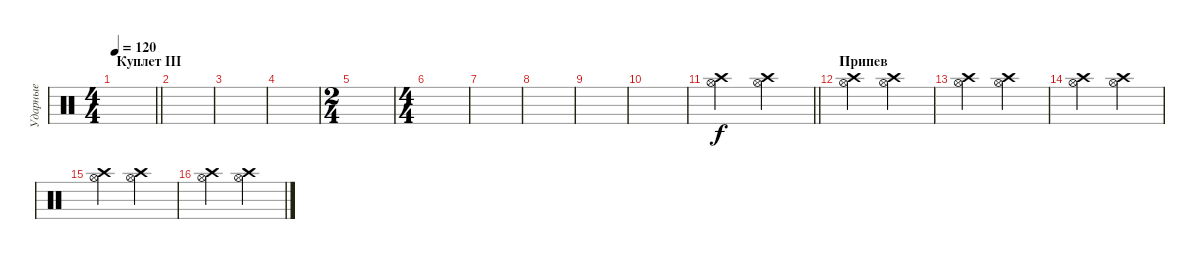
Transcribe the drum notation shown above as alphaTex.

\track ("Ударные" "Ударные") {instrument percussion}
\staff {score}
\articulation defaults
\ts (4 4)
\section ("" "Куплет III")
\tempo 120
\clef neutral
\barLineRight lightlight
\ks c
|
|
|
|
\ts (2 4)
|
\ts (4 4)
|
|
|
|
|
\barLineRight lightlight
("Hi-Hat (open)" "Crash high (hit)").2 ("Hi-Hat (open)" "Crash high (hit)").2 |
\section ("" "Припев")
("Hi-Hat (open)" "Crash high (hit)").4 ("Hi-Hat (open)" "Crash high (hit)").4 |
("Hi-Hat (open)" "Crash high (hit)").4 ("Hi-Hat (open)" "Crash high (hit)").4 |
("Hi-Hat (open)" "Crash high (hit)").4 ("Hi-Hat (open)" "Crash high (hit)").4 |
("Hi-Hat (open)" "Crash high (hit)").4 ("Hi-Hat (open)" "Crash high (hit)").4 |
("Hi-Hat (open)" "Crash high (hit)").4 ("Hi-Hat (open)" "Crash high (hit)").4
